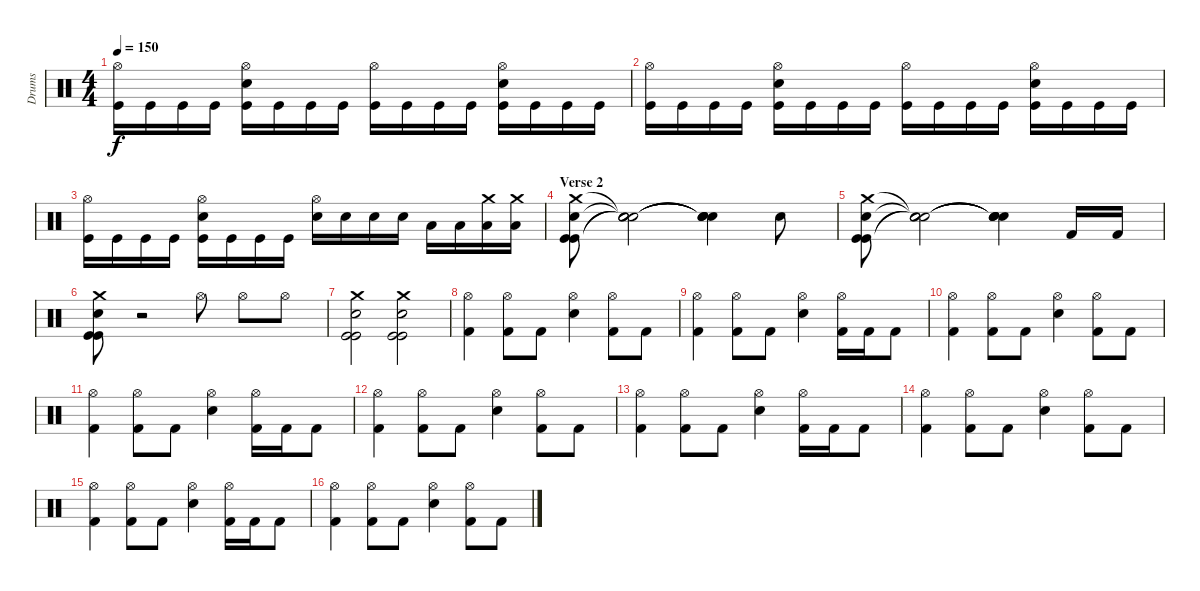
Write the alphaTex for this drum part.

\track ("Drums" "Drums") {instrument percussion}
\staff {score}
\articulation defaults
\ts (4 4)
\tempo 150
\clef neutral
\ks c
("Hi-Hat (open)" "Kick (hit)").16{dy f} "Kick (hit)".16 "Kick (hit)".16 "Kick (hit)".16 ("Hi-Hat (open)" "Snare (hit) 2" "Kick (hit)").16 "Kick (hit)".16 "Kick (hit)".16 "Kick (hit)".16 ("Hi-Hat (open)" "Kick (hit)").16 "Kick (hit)".16 "Kick (hit)".16 "Kick (hit)".16 ("Hi-Hat (open)" "Snare (hit) 2" "Kick (hit)").16 "Kick (hit)".16 "Kick (hit)".16 "Kick (hit)".16 |
("Hi-Hat (open)" "Kick (hit)").16 "Kick (hit)".16 "Kick (hit)".16 "Kick (hit)".16 ("Hi-Hat (open)" "Snare (hit) 2" "Kick (hit)").16 "Kick (hit)".16 "Kick (hit)".16 "Kick (hit)".16 ("Hi-Hat (open)" "Kick (hit)").16 "Kick (hit)".16 "Kick (hit)".16 "Kick (hit)".16 ("Hi-Hat (open)" "Snare (hit) 2" "Kick (hit)").16 "Kick (hit)".16 "Kick (hit)".16 "Kick (hit)".16 |
("Hi-Hat (open)" "Kick (hit)").16 "Kick (hit)".16 "Kick (hit)".16 "Kick (hit)".16 ("Hi-Hat (open)" "Snare (hit) 2" "Kick (hit)").16 "Kick (hit)".16 "Kick (hit)".16 "Kick (hit)".16 ("Hi-Hat (open)" "Electric Snare (hit)").16 "Electric Snare (hit)".16 "Electric Snare (hit)".16 "Electric Snare (hit)".16 "Low Tom (hit)".16 "Low Tom (hit)".16 ("Low Tom (hit)" "Crash medium (hit)").16 ("Low Tom (hit)" "Crash medium (hit)").16 |
\section ("" "Verse 2")
("Crash medium (hit)" "Kick (hit)" "Kick (hit)" "Snare (hit) 2").8 ("Snare (hit)"{t} "Snare (hit)"{t} "Snare (hit)"{t} "Snare (hit)"{t}).2 ("Snare (hit)"{t} "Snare (hit)"{t} "Snare (hit)"{t} "Snare (hit)"{t}).4 "Snare (hit) 2".8 |
("Crash medium (hit)" "Kick (hit)" "Kick (hit)" "Snare (hit) 2").8 ("Snare (hit)"{t} "Snare (hit)"{t} "Snare (hit)"{t} "Snare (hit)"{t}).2 ("Snare (hit)"{t} "Snare (hit)"{t} "Snare (hit)"{t} "Snare (hit)"{t}).4 "Kick (hit) 2".16 "Kick (hit) 2".16 |
("Crash medium (hit)" "Kick (hit)" "Kick (hit)" "Snare (hit) 2").8 r.2 "Hi-Hat (open)".8 "Hi-Hat (open)".8 "Hi-Hat (open)".8 |
("Crash medium (hit)" "Snare (hit) 2" "Kick (hit)" "Kick (hit)").2 ("Crash medium (hit)" "Snare (hit) 2" "Kick (hit)" "Kick (hit)").2 |
("Hi-Hat (open)" "Kick (hit) 2").4 ("Hi-Hat (open)" "Kick (hit) 2").8 "Kick (hit) 2".8 ("Hi-Hat (open)" "Snare (hit) 2").4 ("Hi-Hat (open)" "Kick (hit) 2").8 "Kick (hit) 2".8 |
("Hi-Hat (open)" "Kick (hit) 2").4 ("Hi-Hat (open)" "Kick (hit) 2").8 "Kick (hit) 2".8 ("Hi-Hat (open)" "Snare (hit) 2").4 ("Hi-Hat (open)" "Kick (hit) 2").16 "Kick (hit) 2".16 "Kick (hit) 2".8 |
("Hi-Hat (open)" "Kick (hit) 2").4 ("Hi-Hat (open)" "Kick (hit) 2").8 "Kick (hit) 2".8 ("Hi-Hat (open)" "Snare (hit) 2").4 ("Hi-Hat (open)" "Kick (hit) 2").8 "Kick (hit) 2".8 |
("Hi-Hat (open)" "Kick (hit) 2").4 ("Hi-Hat (open)" "Kick (hit) 2").8 "Kick (hit) 2".8 ("Hi-Hat (open)" "Snare (hit) 2").4 ("Hi-Hat (open)" "Kick (hit) 2").16 "Kick (hit) 2".16 "Kick (hit) 2".8 |
("Hi-Hat (open)" "Kick (hit) 2").4 ("Hi-Hat (open)" "Kick (hit) 2").8 "Kick (hit) 2".8 ("Hi-Hat (open)" "Snare (hit) 2").4 ("Hi-Hat (open)" "Kick (hit) 2").8 "Kick (hit) 2".8 |
("Hi-Hat (open)" "Kick (hit) 2").4 ("Hi-Hat (open)" "Kick (hit) 2").8 "Kick (hit) 2".8 ("Hi-Hat (open)" "Snare (hit) 2").4 ("Hi-Hat (open)" "Kick (hit) 2").16 "Kick (hit) 2".16 "Kick (hit) 2".8 |
("Hi-Hat (open)" "Kick (hit) 2").4 ("Hi-Hat (open)" "Kick (hit) 2").8 "Kick (hit) 2".8 ("Hi-Hat (open)" "Snare (hit) 2").4 ("Hi-Hat (open)" "Kick (hit) 2").8 "Kick (hit) 2".8 |
("Hi-Hat (open)" "Kick (hit) 2").4 ("Hi-Hat (open)" "Kick (hit) 2").8 "Kick (hit) 2".8 ("Hi-Hat (open)" "Snare (hit) 2").4 ("Hi-Hat (open)" "Kick (hit) 2").16 "Kick (hit) 2".16 "Kick (hit) 2".8 |
("Hi-Hat (open)" "Kick (hit) 2").4 ("Hi-Hat (open)" "Kick (hit) 2").8 "Kick (hit) 2".8 ("Hi-Hat (open)" "Snare (hit) 2").4 ("Hi-Hat (open)" "Kick (hit) 2").8 "Kick (hit) 2".8
